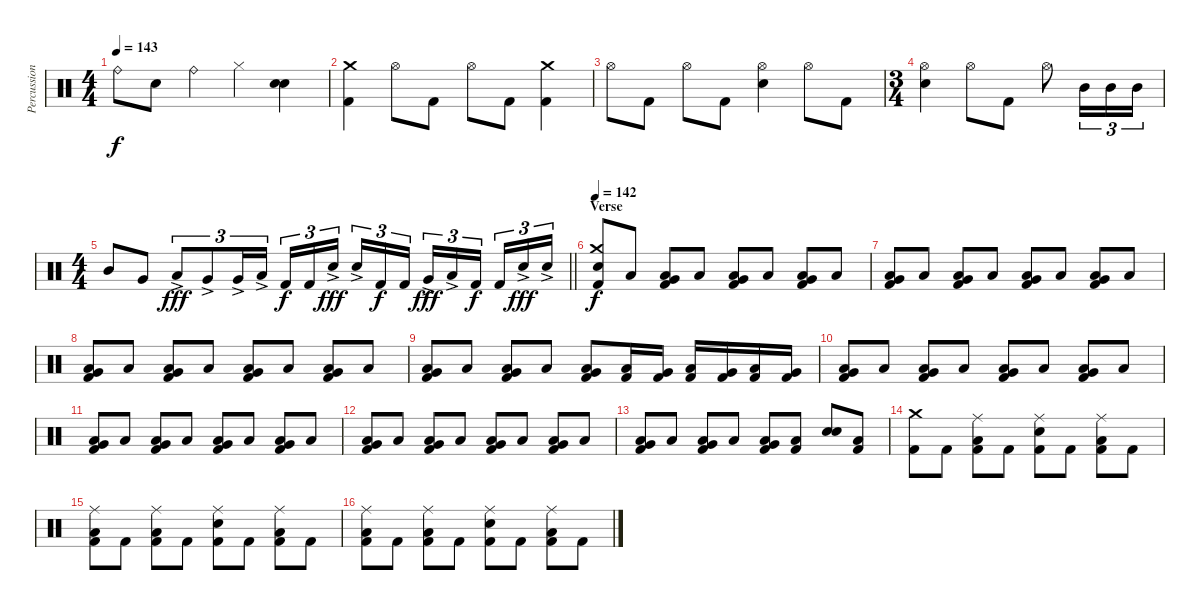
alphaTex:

\track ("Percussion" "Percussion") {instrument percussion}
\staff {score}
\articulation defaults
\ts (4 4)
\tempo 143
\clef neutral
\ks c "Ride (bell)".8{dy f} "Electric Snare (hit)".8 "Ride (bell)".4 "Hi-Hat (closed)".4
("Electric Snare (hit)" "Electric Snare (hit)").4{bd 120} |
("Crash medium (hit)" "Kick (hit) 2").4 "Hi-Hat (open)".8 "Kick (hit) 2".8 "Hi-Hat (open)".8 "Kick (hit) 2".8 ("Crash medium (hit)" "Kick (hit) 2").4 |
"Hi-Hat (open)".8 "Kick (hit) 2".8 "Hi-Hat (open)".8 "Kick (hit) 2".8 ("Hi-Hat (open)" "Electric Snare (hit)").4 "Hi-Hat (open)".8 "Kick (hit) 2".8 |
\ts (3 4)
("Hi-Hat (open)" "Electric Snare (hit)").4 "Hi-Hat (open)".8 "Kick (hit) 2".8 "Hi-Hat (open)".8 "Mid Tom (hit)".16{tu (3 2)} "Mid Tom (hit)".16{tu (3 2)} "Mid Tom (hit)".16{tu (3 2)} |
\ts (4 4)
\barLineRight lightlight "Mid Tom (hit)".8 "Very Low Tom (hit)".8 "Low Tom (hit)"{ac}.8{tu (3 2) dy fff} "Very Low Tom (hit)"{ac}.8{tu (3 2)} "Very Low Tom (hit)"{ac}.16{tu (3 2)} "Low Floor Tom (hit)"{ac}.16{tu (3 2)} "Kick (hit) 2".16{tu (3 2) dy f} "Kick (hit) 2".16{tu (3 2)} "Electric Snare (hit)"{ac}.16{tu (3 2) dy fff beam splitsecondary} "Electric Snare (hit)"{ac}.16{tu (3 2)} "Kick (hit) 2".16{tu (3 2) dy f} "Kick (hit) 2".16{tu (3 2)} "Very Low Tom (hit)"{ac}.16{tu (3 2) dy fff} "Low Floor Tom (hit)"{ac}.16{tu (3 2)} "Kick (hit) 2".16{tu (3 2) dy f beam splitsecondary} "Kick (hit) 2".16{tu (3 2)} "Electric Snare (hit)"{ac}.16{tu (3 2) dy fff} "Electric Snare (hit)"{ac}.16{tu (3 2)}
|
\section ("" "Verse")
\tempo 142
("Crash medium (hit)" "Electric Snare (hit)" "Kick (hit) 2").8{dy f} "Low Floor Tom (hit)".8 ("Very Low Tom (hit)" "Low Floor Tom (hit)" "Kick (hit) 2").8 "Low Floor Tom (hit)".8 ("Very Low Tom (hit)" "Low Floor Tom (hit)" "Kick (hit) 2").8 "Low Floor Tom (hit)".8 ("Very Low Tom (hit)" "Low Floor Tom (hit)" "Kick (hit) 2").8 "Low Floor Tom (hit)".8 |
("Very Low Tom (hit)" "Low Floor Tom (hit)" "Kick (hit) 2").8 "Low Floor Tom (hit)".8 ("Very Low Tom (hit)" "Low Floor Tom (hit)" "Kick (hit) 2").8 "Low Floor Tom (hit)".8 ("Very Low Tom (hit)" "Low Floor Tom (hit)" "Kick (hit) 2").8 "Low Floor Tom (hit)".8 ("Very Low Tom (hit)" "Low Floor Tom (hit)" "Kick (hit) 2").8 "Low Floor Tom (hit)".8 |
("Very Low Tom (hit)" "Low Floor Tom (hit)" "Kick (hit) 2").8 "Low Floor Tom (hit)".8 ("Very Low Tom (hit)" "Low Floor Tom (hit)" "Kick (hit) 2").8 "Low Floor Tom (hit)".8 ("Very Low Tom (hit)" "Low Floor Tom (hit)" "Kick (hit) 2").8 "Low Floor Tom (hit)".8 ("Very Low Tom (hit)" "Low Floor Tom (hit)" "Kick (hit) 2").8 "Low Floor Tom (hit)".8 |
("Very Low Tom (hit)" "Low Floor Tom (hit)" "Kick (hit) 2").8 "Low Floor Tom (hit)".8 ("Very Low Tom (hit)" "Low Floor Tom (hit)" "Kick (hit) 2").8 "Low Floor Tom (hit)".8 ("Very Low Tom (hit)" "Low Floor Tom (hit)" "Kick (hit) 2").8 ("Low Floor Tom (hit)" "Kick (hit) 2").16 ("Very Low Tom (hit)" "Kick (hit) 2").16 ("Low Floor Tom (hit)" "Kick (hit) 2").16 ("Very Low Tom (hit)" "Kick (hit) 2").16 ("Low Floor Tom (hit)" "Kick (hit) 2").16 ("Very Low Tom (hit)" "Kick (hit) 2").16 |
("Very Low Tom (hit)" "Low Floor Tom (hit)" "Kick (hit) 2").8 "Low Floor Tom (hit)".8 ("Very Low Tom (hit)" "Low Floor Tom (hit)" "Kick (hit) 2").8 "Low Floor Tom (hit)".8 ("Very Low Tom (hit)" "Low Floor Tom (hit)" "Kick (hit) 2").8 "Low Floor Tom (hit)".8 ("Very Low Tom (hit)" "Low Floor Tom (hit)" "Kick (hit) 2").8 "Low Floor Tom (hit)".8 |
("Very Low Tom (hit)" "Low Floor Tom (hit)" "Kick (hit) 2").8 "Low Floor Tom (hit)".8 ("Very Low Tom (hit)" "Low Floor Tom (hit)" "Kick (hit) 2").8 "Low Floor Tom (hit)".8 ("Very Low Tom (hit)" "Low Floor Tom (hit)" "Kick (hit) 2").8 "Low Floor Tom (hit)".8 ("Very Low Tom (hit)" "Low Floor Tom (hit)" "Kick (hit) 2").8 "Low Floor Tom (hit)".8 |
("Very Low Tom (hit)" "Low Floor Tom (hit)" "Kick (hit) 2").8 "Low Floor Tom (hit)".8 ("Very Low Tom (hit)" "Low Floor Tom (hit)" "Kick (hit) 2").8 "Low Floor Tom (hit)".8 ("Very Low Tom (hit)" "Low Floor Tom (hit)" "Kick (hit) 2").8 "Low Floor Tom (hit)".8 ("Very Low Tom (hit)" "Low Floor Tom (hit)" "Kick (hit) 2").8 "Low Floor Tom (hit)".8 |
("Very Low Tom (hit)" "Low Floor Tom (hit)" "Kick (hit) 2").8 "Low Floor Tom (hit)".8 ("Very Low Tom (hit)" "Low Floor Tom (hit)" "Kick (hit) 2").8 "Low Floor Tom (hit)".8 ("Very Low Tom (hit)" "Low Floor Tom (hit)" "Kick (hit) 2").8 ("Low Floor Tom (hit)" "Kick (hit) 2").8 ("Electric Snare (hit)" "Electric Snare (hit)").8{bd 120} ("Low Floor Tom (hit)" "Kick (hit) 2").8 |
("Crash medium (hit)" "Kick (hit) 2").8 "Kick (hit) 2".8 ("Ride (middle)" "Low Floor Tom (hit)" "Kick (hit) 2").8 "Kick (hit) 2".8 ("Ride (middle)" "Electric Snare (hit)" "Kick (hit) 2").8 "Kick (hit) 2".8 ("Ride (middle)" "Low Floor Tom (hit)" "Kick (hit) 2").8 "Kick (hit) 2".8 |
("Ride (middle)" "Low Floor Tom (hit)" "Kick (hit) 2").8 "Kick (hit) 2".8 ("Ride (middle)" "Low Floor Tom (hit)" "Kick (hit) 2").8 "Kick (hit) 2".8 ("Ride (middle)" "Electric Snare (hit)" "Kick (hit) 2").8 "Kick (hit) 2".8 ("Ride (middle)" "Low Floor Tom (hit)" "Kick (hit) 2").8 "Kick (hit) 2".8 |
("Ride (middle)" "Low Floor Tom (hit)" "Kick (hit) 2").8 "Kick (hit) 2".8 ("Ride (middle)" "Low Floor Tom (hit)" "Kick (hit) 2").8 "Kick (hit) 2".8 ("Ride (middle)" "Electric Snare (hit)" "Kick (hit) 2").8 "Kick (hit) 2".8 ("Ride (middle)" "Low Floor Tom (hit)" "Kick (hit) 2").8 "Kick (hit) 2".8
